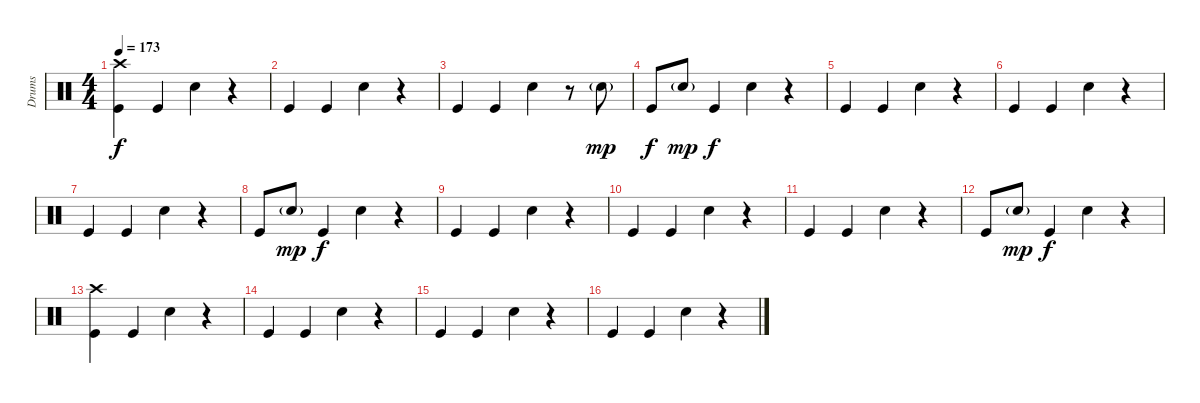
\track ("Drums" "Drums") {instrument percussion}
\staff {score}
\articulation defaults
\ts (4 4)
\tempo 173
\clef neutral
\ks c
("Crash high (hit)" "Kick (hit)").4{dy f} "Kick (hit)".4 "Snare (hit) 2".4 r.4 |
"Kick (hit)".4 "Kick (hit)".4 "Snare (hit) 2".4 r.4 |
"Kick (hit)".4 "Kick (hit)".4 "Snare (hit) 2".4 r.8 "Snare (hit) 2"{g}.8{dy mp} |
"Kick (hit)".8{dy f} "Snare (hit) 2"{g}.8{dy mp} "Kick (hit)".4{dy f} "Snare (hit) 2".4 r.4 |
"Kick (hit)".4 "Kick (hit)".4 "Snare (hit) 2".4 r.4 |
"Kick (hit)".4 "Kick (hit)".4 "Snare (hit) 2".4 r.4 |
"Kick (hit)".4 "Kick (hit)".4 "Snare (hit) 2".4 r.4 |
"Kick (hit)".8 "Snare (hit) 2"{g}.8{dy mp} "Kick (hit)".4{dy f} "Snare (hit) 2".4 r.4 |
"Kick (hit)".4 "Kick (hit)".4 "Snare (hit) 2".4 r.4 |
"Kick (hit)".4 "Kick (hit)".4 "Snare (hit) 2".4 r.4 |
"Kick (hit)".4 "Kick (hit)".4 "Snare (hit) 2".4 r.4 |
"Kick (hit)".8 "Snare (hit) 2"{g}.8{dy mp} "Kick (hit)".4{dy f} "Snare (hit) 2".4 r.4 |
("Crash high (hit)" "Kick (hit)").4 "Kick (hit)".4 "Snare (hit) 2".4 r.4 |
"Kick (hit)".4 "Kick (hit)".4 "Snare (hit) 2".4 r.4 |
"Kick (hit)".4 "Kick (hit)".4 "Snare (hit) 2".4 r.4 |
"Kick (hit)".4 "Kick (hit)".4 "Snare (hit) 2".4 r.4
